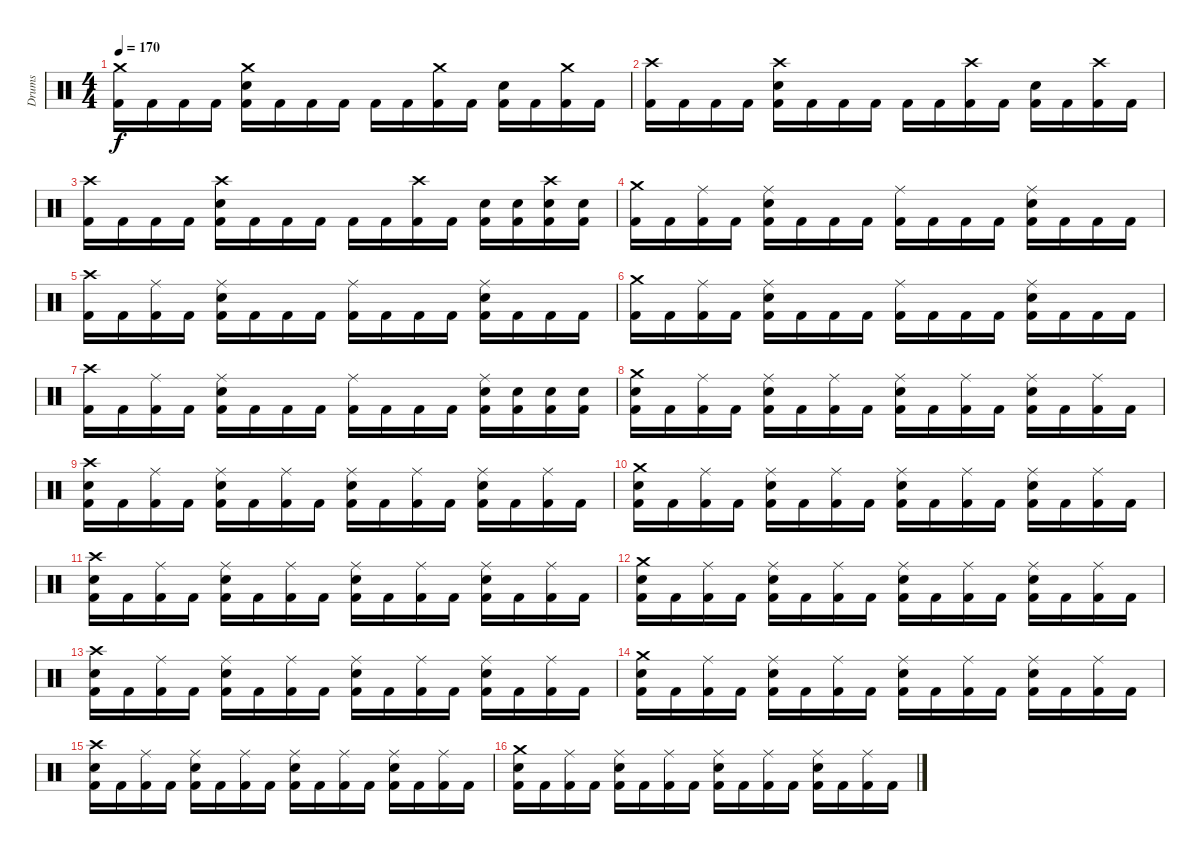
\track ("Drums" "Drums") {instrument percussion}
\staff {score}
\articulation defaults
\ts (4 4)
\tempo 170
\clef neutral
\ks c
("Crash medium (hit)" "Kick (hit) 2").16{dy f} "Kick (hit) 2".16 "Kick (hit) 2".16 "Kick (hit) 2".16 ("Crash medium (hit)" "Electric Snare (hit)" "Kick (hit) 2").16 "Kick (hit) 2".16 "Kick (hit) 2".16 "Kick (hit) 2".16 "Kick (hit) 2".16 "Kick (hit) 2".16 ("Crash medium (hit)" "Kick (hit) 2").16 "Kick (hit) 2".16 ("Electric Snare (hit)" "Kick (hit) 2").16 "Kick (hit) 2".16 ("Crash medium (hit)" "Kick (hit) 2").16 "Kick (hit) 2".16 |
("Crash high (hit)" "Kick (hit) 2").16 "Kick (hit) 2".16 "Kick (hit) 2".16 "Kick (hit) 2".16 ("Crash high (hit)" "Electric Snare (hit)" "Kick (hit) 2").16 "Kick (hit) 2".16 "Kick (hit) 2".16 "Kick (hit) 2".16 "Kick (hit) 2".16 "Kick (hit) 2".16 ("Crash high (hit)" "Kick (hit) 2").16 "Kick (hit) 2".16 ("Electric Snare (hit)" "Kick (hit) 2").16 "Kick (hit) 2".16 ("Crash high (hit)" "Kick (hit) 2").16 "Kick (hit) 2".16 |
("Crash high (hit)" "Kick (hit) 2").16 "Kick (hit) 2".16 "Kick (hit) 2".16 "Kick (hit) 2".16 ("Crash high (hit)" "Electric Snare (hit)" "Kick (hit) 2").16 "Kick (hit) 2".16 "Kick (hit) 2".16 "Kick (hit) 2".16 "Kick (hit) 2".16 "Kick (hit) 2".16 ("Crash high (hit)" "Kick (hit) 2").16 "Kick (hit) 2".16 ("Electric Snare (hit)" "Kick (hit) 2").16 ("Electric Snare (hit)" "Kick (hit) 2").16 ("Crash high (hit)" "Electric Snare (hit)" "Kick (hit) 2").16 ("Electric Snare (hit)" "Kick (hit) 2").16 |
("Crash medium (hit)" "Kick (hit) 2").16 "Kick (hit) 2".16 ("Ride (middle)" "Kick (hit) 2").16 "Kick (hit) 2".16 ("Ride (middle)" "Electric Snare (hit)" "Kick (hit) 2").16 "Kick (hit) 2".16 "Kick (hit) 2".16 "Kick (hit) 2".16 ("Ride (middle)" "Kick (hit) 2").16 "Kick (hit) 2".16 "Kick (hit) 2".16 "Kick (hit) 2".16 ("Ride (middle)" "Electric Snare (hit)" "Kick (hit) 2").16 "Kick (hit) 2".16 "Kick (hit) 2".16 "Kick (hit) 2".16 |
("Crash high (hit)" "Kick (hit) 2").16 "Kick (hit) 2".16 ("Ride (middle)" "Kick (hit) 2").16 "Kick (hit) 2".16 ("Ride (middle)" "Electric Snare (hit)" "Kick (hit) 2").16 "Kick (hit) 2".16 "Kick (hit) 2".16 "Kick (hit) 2".16 ("Ride (middle)" "Kick (hit) 2").16 "Kick (hit) 2".16 "Kick (hit) 2".16 "Kick (hit) 2".16 ("Ride (middle)" "Electric Snare (hit)" "Kick (hit) 2").16 "Kick (hit) 2".16 "Kick (hit) 2".16 "Kick (hit) 2".16 |
("Crash medium (hit)" "Kick (hit) 2").16 "Kick (hit) 2".16 ("Ride (middle)" "Kick (hit) 2").16 "Kick (hit) 2".16 ("Ride (middle)" "Electric Snare (hit)" "Kick (hit) 2").16 "Kick (hit) 2".16 "Kick (hit) 2".16 "Kick (hit) 2".16 ("Ride (middle)" "Kick (hit) 2").16 "Kick (hit) 2".16 "Kick (hit) 2".16 "Kick (hit) 2".16 ("Ride (middle)" "Electric Snare (hit)" "Kick (hit) 2").16 "Kick (hit) 2".16 "Kick (hit) 2".16 "Kick (hit) 2".16 |
("Crash high (hit)" "Kick (hit) 2").16 "Kick (hit) 2".16 ("Ride (middle)" "Kick (hit) 2").16 "Kick (hit) 2".16 ("Ride (middle)" "Electric Snare (hit)" "Kick (hit) 2").16 "Kick (hit) 2".16 "Kick (hit) 2".16 "Kick (hit) 2".16 ("Ride (middle)" "Kick (hit) 2").16 "Kick (hit) 2".16 "Kick (hit) 2".16 "Kick (hit) 2".16 ("Ride (middle)" "Electric Snare (hit)" "Kick (hit) 2").16 ("Electric Snare (hit)" "Kick (hit) 2").16 ("Electric Snare (hit)" "Kick (hit) 2").16 ("Electric Snare (hit)" "Kick (hit) 2").16 |
("Crash medium (hit)" "Electric Snare (hit)" "Kick (hit) 2").16{volume 12} "Kick (hit) 2".16 ("Ride (middle)" "Kick (hit) 2").16 "Kick (hit) 2".16 ("Ride (middle)" "Electric Snare (hit)" "Kick (hit) 2").16 "Kick (hit) 2".16 ("Ride (middle)" "Kick (hit) 2").16 "Kick (hit) 2".16 ("Ride (middle)" "Electric Snare (hit)" "Kick (hit) 2").16 "Kick (hit) 2".16 ("Ride (middle)" "Kick (hit) 2").16 "Kick (hit) 2".16 ("Ride (middle)" "Electric Snare (hit)" "Kick (hit) 2").16 "Kick (hit) 2".16 ("Ride (middle)" "Kick (hit) 2").16 "Kick (hit) 2".16 |
("Crash high (hit)" "Electric Snare (hit)" "Kick (hit) 2").16{volume 11} "Kick (hit) 2".16 ("Ride (middle)" "Kick (hit) 2").16 "Kick (hit) 2".16 ("Ride (middle)" "Electric Snare (hit)" "Kick (hit) 2").16 "Kick (hit) 2".16 ("Ride (middle)" "Kick (hit) 2").16 "Kick (hit) 2".16 ("Ride (middle)" "Electric Snare (hit)" "Kick (hit) 2").16 "Kick (hit) 2".16 ("Ride (middle)" "Kick (hit) 2").16 "Kick (hit) 2".16 ("Ride (middle)" "Electric Snare (hit)" "Kick (hit) 2").16 "Kick (hit) 2".16 ("Ride (middle)" "Kick (hit) 2").16 "Kick (hit) 2".16 |
("Crash medium (hit)" "Electric Snare (hit)" "Kick (hit) 2").16{volume 10} "Kick (hit) 2".16 ("Ride (middle)" "Kick (hit) 2").16 "Kick (hit) 2".16 ("Ride (middle)" "Electric Snare (hit)" "Kick (hit) 2").16 "Kick (hit) 2".16 ("Ride (middle)" "Kick (hit) 2").16 "Kick (hit) 2".16 ("Ride (middle)" "Electric Snare (hit)" "Kick (hit) 2").16 "Kick (hit) 2".16 ("Ride (middle)" "Kick (hit) 2").16 "Kick (hit) 2".16 ("Ride (middle)" "Electric Snare (hit)" "Kick (hit) 2").16 "Kick (hit) 2".16 ("Ride (middle)" "Kick (hit) 2").16 "Kick (hit) 2".16 |
("Crash high (hit)" "Electric Snare (hit)" "Kick (hit) 2").16{volume 9} "Kick (hit) 2".16 ("Ride (middle)" "Kick (hit) 2").16 "Kick (hit) 2".16 ("Ride (middle)" "Electric Snare (hit)" "Kick (hit) 2").16 "Kick (hit) 2".16 ("Ride (middle)" "Kick (hit) 2").16 "Kick (hit) 2".16 ("Ride (middle)" "Electric Snare (hit)" "Kick (hit) 2").16 "Kick (hit) 2".16 ("Ride (middle)" "Kick (hit) 2").16 "Kick (hit) 2".16 ("Ride (middle)" "Electric Snare (hit)" "Kick (hit) 2").16 "Kick (hit) 2".16 ("Ride (middle)" "Kick (hit) 2").16 "Kick (hit) 2".16 |
("Crash medium (hit)" "Electric Snare (hit)" "Kick (hit) 2").16{volume 8} "Kick (hit) 2".16 ("Ride (middle)" "Kick (hit) 2").16 "Kick (hit) 2".16 ("Ride (middle)" "Electric Snare (hit)" "Kick (hit) 2").16 "Kick (hit) 2".16 ("Ride (middle)" "Kick (hit) 2").16 "Kick (hit) 2".16 ("Ride (middle)" "Electric Snare (hit)" "Kick (hit) 2").16 "Kick (hit) 2".16 ("Ride (middle)" "Kick (hit) 2").16 "Kick (hit) 2".16 ("Ride (middle)" "Electric Snare (hit)" "Kick (hit) 2").16 "Kick (hit) 2".16 ("Ride (middle)" "Kick (hit) 2").16 "Kick (hit) 2".16 |
("Crash high (hit)" "Electric Snare (hit)" "Kick (hit) 2").16{volume 7} "Kick (hit) 2".16 ("Ride (middle)" "Kick (hit) 2").16 "Kick (hit) 2".16 ("Ride (middle)" "Electric Snare (hit)" "Kick (hit) 2").16 "Kick (hit) 2".16 ("Ride (middle)" "Kick (hit) 2").16 "Kick (hit) 2".16 ("Ride (middle)" "Electric Snare (hit)" "Kick (hit) 2").16 "Kick (hit) 2".16 ("Ride (middle)" "Kick (hit) 2").16 "Kick (hit) 2".16 ("Ride (middle)" "Electric Snare (hit)" "Kick (hit) 2").16 "Kick (hit) 2".16 ("Ride (middle)" "Kick (hit) 2").16 "Kick (hit) 2".16 |
("Crash medium (hit)" "Electric Snare (hit)" "Kick (hit) 2").16{volume 6} "Kick (hit) 2".16 ("Ride (middle)" "Kick (hit) 2").16 "Kick (hit) 2".16 ("Ride (middle)" "Electric Snare (hit)" "Kick (hit) 2").16 "Kick (hit) 2".16 ("Ride (middle)" "Kick (hit) 2").16 "Kick (hit) 2".16 ("Ride (middle)" "Electric Snare (hit)" "Kick (hit) 2").16 "Kick (hit) 2".16 ("Ride (middle)" "Kick (hit) 2").16 "Kick (hit) 2".16 ("Ride (middle)" "Electric Snare (hit)" "Kick (hit) 2").16 "Kick (hit) 2".16 ("Ride (middle)" "Kick (hit) 2").16 "Kick (hit) 2".16 |
("Crash high (hit)" "Electric Snare (hit)" "Kick (hit) 2").16{volume 5} "Kick (hit) 2".16 ("Ride (middle)" "Kick (hit) 2").16 "Kick (hit) 2".16 ("Ride (middle)" "Electric Snare (hit)" "Kick (hit) 2").16 "Kick (hit) 2".16 ("Ride (middle)" "Kick (hit) 2").16 "Kick (hit) 2".16 ("Ride (middle)" "Electric Snare (hit)" "Kick (hit) 2").16 "Kick (hit) 2".16 ("Ride (middle)" "Kick (hit) 2").16 "Kick (hit) 2".16 ("Ride (middle)" "Electric Snare (hit)" "Kick (hit) 2").16 "Kick (hit) 2".16 ("Ride (middle)" "Kick (hit) 2").16 "Kick (hit) 2".16 |
("Crash medium (hit)" "Electric Snare (hit)" "Kick (hit) 2").16{volume 4} "Kick (hit) 2".16 ("Ride (middle)" "Kick (hit) 2").16 "Kick (hit) 2".16 ("Ride (middle)" "Electric Snare (hit)" "Kick (hit) 2").16 "Kick (hit) 2".16 ("Ride (middle)" "Kick (hit) 2").16 "Kick (hit) 2".16 ("Ride (middle)" "Electric Snare (hit)" "Kick (hit) 2").16 "Kick (hit) 2".16 ("Ride (middle)" "Kick (hit) 2").16 "Kick (hit) 2".16 ("Ride (middle)" "Electric Snare (hit)" "Kick (hit) 2").16 "Kick (hit) 2".16 ("Ride (middle)" "Kick (hit) 2").16 "Kick (hit) 2".16
